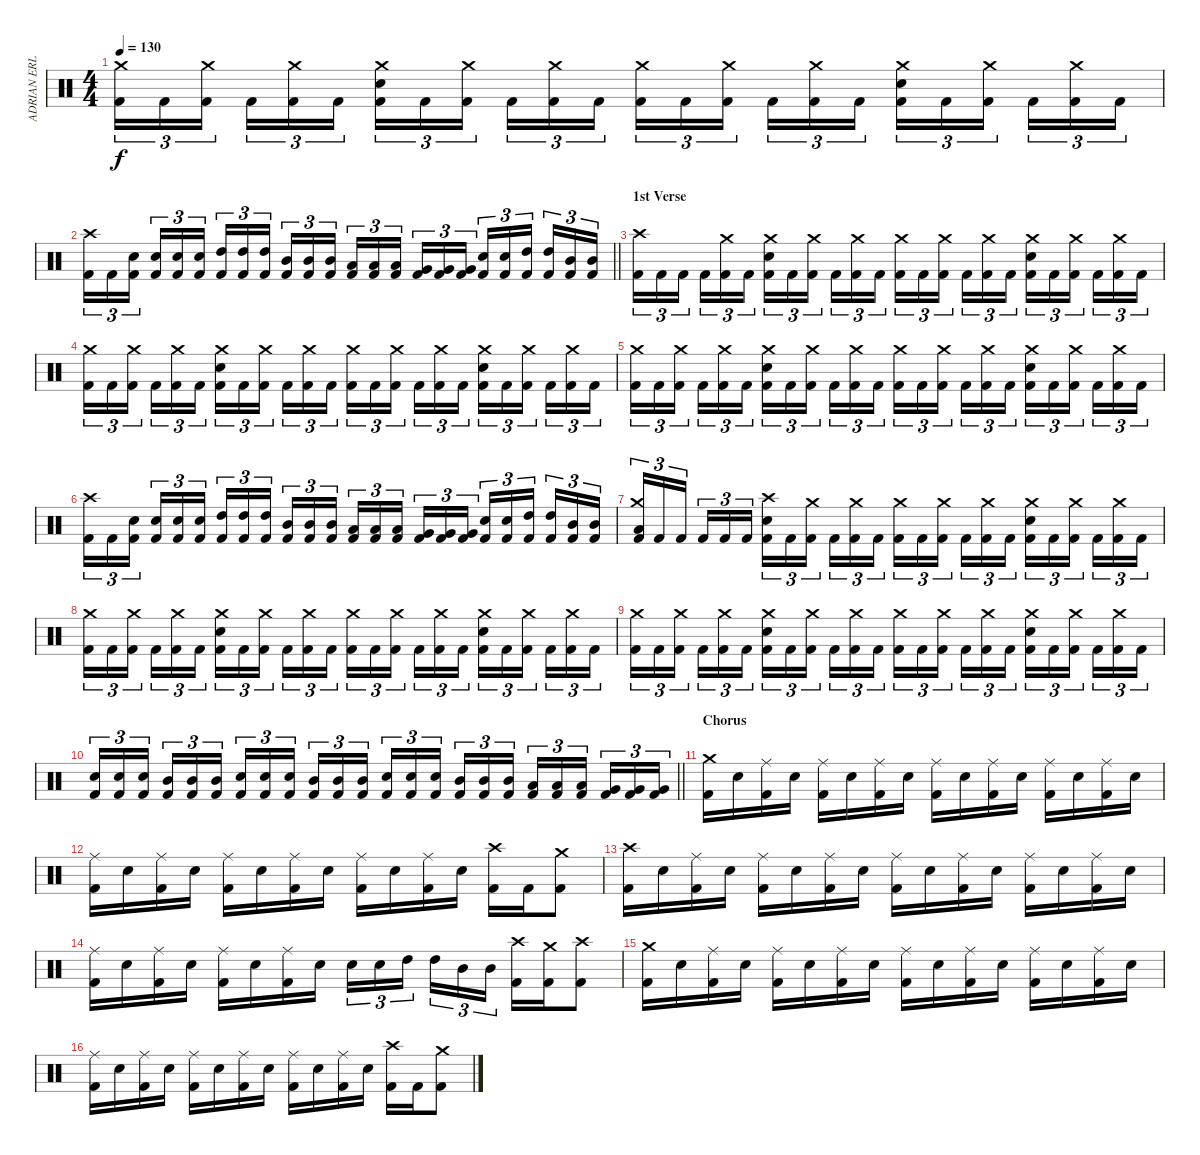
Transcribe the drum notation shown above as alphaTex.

\track ("ADRIAN ERLANDSSON" "ADRIAN ERL") {instrument percussion}
\staff {score}
\articulation defaults
\ts (4 4)
\tempo 130
\clef neutral
\ks c
("Kick (hit) 2" "Crash medium (hit)").16{tu (3 2) dy f} "Kick (hit) 2".16{tu (3 2)} ("Kick (hit) 2" "Crash medium (hit)").16{tu (3 2) beam splitsecondary} "Kick (hit) 2".16{tu (3 2)} ("Kick (hit) 2" "Crash medium (hit)").16{tu (3 2)} "Kick (hit) 2".16{tu (3 2)} ("Kick (hit) 2" "Electric Snare (hit)" "Crash medium (hit)").16{tu (3 2)} "Kick (hit) 2".16{tu (3 2)} ("Kick (hit) 2" "Crash medium (hit)").16{tu (3 2) beam splitsecondary} "Kick (hit) 2".16{tu (3 2)} ("Kick (hit) 2" "Crash medium (hit)").16{tu (3 2)} "Kick (hit) 2".16{tu (3 2)} ("Kick (hit) 2" "Crash medium (hit)").16{tu (3 2)} "Kick (hit) 2".16{tu (3 2)} ("Kick (hit) 2" "Crash medium (hit)").16{tu (3 2) beam splitsecondary} "Kick (hit) 2".16{tu (3 2)} ("Kick (hit) 2" "Crash medium (hit)").16{tu (3 2)} "Kick (hit) 2".16{tu (3 2)} ("Kick (hit) 2" "Electric Snare (hit)" "Crash medium (hit)").16{tu (3 2)} "Kick (hit) 2".16{tu (3 2)} ("Kick (hit) 2" "Crash medium (hit)").16{tu (3 2) beam splitsecondary} "Kick (hit) 2".16{tu (3 2)} ("Kick (hit) 2" "Crash medium (hit)").16{tu (3 2)} "Kick (hit) 2".16{tu (3 2)} |
\barLineRight lightlight
("Kick (hit) 2" "Crash high (hit)").16{tu (3 2)} "Kick (hit) 2".16{tu (3 2)} ("Kick (hit) 2" "Electric Snare (hit)").16{tu (3 2) beam splitsecondary} ("Kick (hit) 2" "Electric Snare (hit)").16{tu (3 2)} ("Kick (hit) 2" "Electric Snare (hit)").16{tu (3 2)} ("Kick (hit) 2" "Electric Snare (hit)").16{tu (3 2)} ("Kick (hit) 2" "High Tom (hit)").16{tu (3 2)} ("Kick (hit) 2" "High Tom (hit)").16{tu (3 2)} ("Kick (hit) 2" "High Tom (hit)").16{tu (3 2) beam splitsecondary} ("Kick (hit) 2" "Mid Tom (hit)").16{tu (3 2)} ("Kick (hit) 2" "Mid Tom (hit)").16{tu (3 2)} ("Kick (hit) 2" "Mid Tom (hit)").16{tu (3 2)} ("Kick (hit) 2" "Low Tom (hit)").16{tu (3 2)} ("Kick (hit) 2" "Low Tom (hit)").16{tu (3 2)} ("Kick (hit) 2" "Low Tom (hit)").16{tu (3 2) beam splitsecondary} ("Kick (hit) 2" "Very Low Tom (hit)").16{tu (3 2)} ("Kick (hit) 2" "Very Low Tom (hit)").16{tu (3 2)} ("Kick (hit) 2" "Very Low Tom (hit)").16{tu (3 2)} ("Kick (hit) 2" "Electric Snare (hit)").16{tu (3 2)} ("Kick (hit) 2" "Electric Snare (hit)").16{tu (3 2)} ("Kick (hit) 2" "High Tom (hit)").16{tu (3 2) beam splitsecondary} ("Kick (hit) 2" "High Tom (hit)").16{tu (3 2)} ("Kick (hit) 2" "Mid Tom (hit)").16{tu (3 2)} ("Kick (hit) 2" "Mid Tom (hit)").16{tu (3 2)} |
\section ("" "1st Verse")
("Kick (hit) 2" "Crash high (hit)").16{tu (3 2)} "Kick (hit) 2".16{tu (3 2)} "Kick (hit) 2".16{tu (3 2) beam splitsecondary} "Kick (hit) 2".16{tu (3 2)} ("Kick (hit) 2" "Crash medium (hit)").16{tu (3 2)} "Kick (hit) 2".16{tu (3 2)} ("Kick (hit) 2" "Electric Snare (hit)" "Crash medium (hit)").16{tu (3 2)} "Kick (hit) 2".16{tu (3 2)} ("Kick (hit) 2" "Crash medium (hit)").16{tu (3 2) beam splitsecondary} "Kick (hit) 2".16{tu (3 2)} ("Kick (hit) 2" "Crash medium (hit)").16{tu (3 2)} "Kick (hit) 2".16{tu (3 2)} ("Kick (hit) 2" "Crash medium (hit)").16{tu (3 2)} "Kick (hit) 2".16{tu (3 2)} ("Kick (hit) 2" "Crash medium (hit)").16{tu (3 2) beam splitsecondary} "Kick (hit) 2".16{tu (3 2)} ("Kick (hit) 2" "Crash medium (hit)").16{tu (3 2)} "Kick (hit) 2".16{tu (3 2)} ("Kick (hit) 2" "Electric Snare (hit)" "Crash medium (hit)").16{tu (3 2)} "Kick (hit) 2".16{tu (3 2)} ("Kick (hit) 2" "Crash medium (hit)").16{tu (3 2) beam splitsecondary} "Kick (hit) 2".16{tu (3 2)} ("Kick (hit) 2" "Crash medium (hit)").16{tu (3 2)} "Kick (hit) 2".16{tu (3 2)} |
("Kick (hit) 2" "Crash medium (hit)").16{tu (3 2)} "Kick (hit) 2".16{tu (3 2)} ("Kick (hit) 2" "Crash medium (hit)").16{tu (3 2) beam splitsecondary} "Kick (hit) 2".16{tu (3 2)} ("Kick (hit) 2" "Crash medium (hit)").16{tu (3 2)} "Kick (hit) 2".16{tu (3 2)} ("Kick (hit) 2" "Electric Snare (hit)" "Crash medium (hit)").16{tu (3 2)} "Kick (hit) 2".16{tu (3 2)} ("Kick (hit) 2" "Crash medium (hit)").16{tu (3 2) beam splitsecondary} "Kick (hit) 2".16{tu (3 2)} ("Kick (hit) 2" "Crash medium (hit)").16{tu (3 2)} "Kick (hit) 2".16{tu (3 2)} ("Kick (hit) 2" "Crash medium (hit)").16{tu (3 2)} "Kick (hit) 2".16{tu (3 2)} ("Kick (hit) 2" "Crash medium (hit)").16{tu (3 2) beam splitsecondary} "Kick (hit) 2".16{tu (3 2)} ("Kick (hit) 2" "Crash medium (hit)").16{tu (3 2)} "Kick (hit) 2".16{tu (3 2)} ("Kick (hit) 2" "Electric Snare (hit)" "Crash medium (hit)").16{tu (3 2)} "Kick (hit) 2".16{tu (3 2)} ("Kick (hit) 2" "Crash medium (hit)").16{tu (3 2) beam splitsecondary} "Kick (hit) 2".16{tu (3 2)} ("Kick (hit) 2" "Crash medium (hit)").16{tu (3 2)} "Kick (hit) 2".16{tu (3 2)} |
("Kick (hit) 2" "Crash medium (hit)").16{tu (3 2)} "Kick (hit) 2".16{tu (3 2)} ("Kick (hit) 2" "Crash medium (hit)").16{tu (3 2) beam splitsecondary} "Kick (hit) 2".16{tu (3 2)} ("Kick (hit) 2" "Crash medium (hit)").16{tu (3 2)} "Kick (hit) 2".16{tu (3 2)} ("Kick (hit) 2" "Electric Snare (hit)" "Crash medium (hit)").16{tu (3 2)} "Kick (hit) 2".16{tu (3 2)} ("Kick (hit) 2" "Crash medium (hit)").16{tu (3 2) beam splitsecondary} "Kick (hit) 2".16{tu (3 2)} ("Kick (hit) 2" "Crash medium (hit)").16{tu (3 2)} "Kick (hit) 2".16{tu (3 2)} ("Kick (hit) 2" "Crash medium (hit)").16{tu (3 2)} "Kick (hit) 2".16{tu (3 2)} ("Kick (hit) 2" "Crash medium (hit)").16{tu (3 2) beam splitsecondary} "Kick (hit) 2".16{tu (3 2)} ("Kick (hit) 2" "Crash medium (hit)").16{tu (3 2)} "Kick (hit) 2".16{tu (3 2)} ("Kick (hit) 2" "Electric Snare (hit)" "Crash medium (hit)").16{tu (3 2)} "Kick (hit) 2".16{tu (3 2)} ("Kick (hit) 2" "Crash medium (hit)").16{tu (3 2) beam splitsecondary} "Kick (hit) 2".16{tu (3 2)} ("Kick (hit) 2" "Crash medium (hit)").16{tu (3 2)} "Kick (hit) 2".16{tu (3 2)} |
("Kick (hit) 2" "Crash high (hit)").16{tu (3 2)} "Kick (hit) 2".16{tu (3 2)} ("Kick (hit) 2" "Electric Snare (hit)").16{tu (3 2) beam splitsecondary} ("Kick (hit) 2" "Electric Snare (hit)").16{tu (3 2)} ("Kick (hit) 2" "Electric Snare (hit)").16{tu (3 2)} ("Kick (hit) 2" "Electric Snare (hit)").16{tu (3 2)} ("Kick (hit) 2" "High Tom (hit)").16{tu (3 2)} ("Kick (hit) 2" "High Tom (hit)").16{tu (3 2)} ("Kick (hit) 2" "High Tom (hit)").16{tu (3 2) beam splitsecondary} ("Kick (hit) 2" "Mid Tom (hit)").16{tu (3 2)} ("Kick (hit) 2" "Mid Tom (hit)").16{tu (3 2)} ("Kick (hit) 2" "Mid Tom (hit)").16{tu (3 2)} ("Kick (hit) 2" "Low Tom (hit)").16{tu (3 2)} ("Kick (hit) 2" "Low Tom (hit)").16{tu (3 2)} ("Kick (hit) 2" "Low Tom (hit)").16{tu (3 2) beam splitsecondary} ("Kick (hit) 2" "Very Low Tom (hit)").16{tu (3 2)} ("Kick (hit) 2" "Very Low Tom (hit)").16{tu (3 2)} ("Kick (hit) 2" "Very Low Tom (hit)").16{tu (3 2)} ("Kick (hit) 2" "Electric Snare (hit)").16{tu (3 2)} ("Kick (hit) 2" "Electric Snare (hit)").16{tu (3 2)} ("Kick (hit) 2" "High Tom (hit)").16{tu (3 2) beam splitsecondary} ("Kick (hit) 2" "High Tom (hit)").16{tu (3 2)} ("Kick (hit) 2" "Mid Tom (hit)").16{tu (3 2)} ("Kick (hit) 2" "Mid Tom (hit)").16{tu (3 2)} |
("Kick (hit) 2" "Low Tom (hit)" "Crash medium (hit)").16{tu (3 2)} "Kick (hit) 2".16{tu (3 2)} "Kick (hit) 2".16{tu (3 2) beam splitsecondary} "Kick (hit) 2".16{tu (3 2)} "Kick (hit) 2".16{tu (3 2)} "Kick (hit) 2".16{tu (3 2)} ("Kick (hit) 2" "Electric Snare (hit)" "Crash high (hit)").16{tu (3 2)} "Kick (hit) 2".16{tu (3 2)} ("Kick (hit) 2" "Crash medium (hit)").16{tu (3 2) beam splitsecondary} "Kick (hit) 2".16{tu (3 2)} ("Kick (hit) 2" "Crash medium (hit)").16{tu (3 2)} "Kick (hit) 2".16{tu (3 2)} ("Kick (hit) 2" "Crash medium (hit)").16{tu (3 2)} "Kick (hit) 2".16{tu (3 2)} ("Kick (hit) 2" "Crash medium (hit)").16{tu (3 2) beam splitsecondary} "Kick (hit) 2".16{tu (3 2)} ("Kick (hit) 2" "Crash medium (hit)").16{tu (3 2)} "Kick (hit) 2".16{tu (3 2)} ("Kick (hit) 2" "Electric Snare (hit)" "Crash medium (hit)").16{tu (3 2)} "Kick (hit) 2".16{tu (3 2)} ("Kick (hit) 2" "Crash medium (hit)").16{tu (3 2) beam splitsecondary} "Kick (hit) 2".16{tu (3 2)} ("Kick (hit) 2" "Crash medium (hit)").16{tu (3 2)} "Kick (hit) 2".16{tu (3 2)} |
("Kick (hit) 2" "Crash medium (hit)").16{tu (3 2)} "Kick (hit) 2".16{tu (3 2)} ("Kick (hit) 2" "Crash medium (hit)").16{tu (3 2) beam splitsecondary} "Kick (hit) 2".16{tu (3 2)} ("Kick (hit) 2" "Crash medium (hit)").16{tu (3 2)} "Kick (hit) 2".16{tu (3 2)} ("Kick (hit) 2" "Electric Snare (hit)" "Crash medium (hit)").16{tu (3 2)} "Kick (hit) 2".16{tu (3 2)} ("Kick (hit) 2" "Crash medium (hit)").16{tu (3 2) beam splitsecondary} "Kick (hit) 2".16{tu (3 2)} ("Kick (hit) 2" "Crash medium (hit)").16{tu (3 2)} "Kick (hit) 2".16{tu (3 2)} ("Kick (hit) 2" "Crash medium (hit)").16{tu (3 2)} "Kick (hit) 2".16{tu (3 2)} ("Kick (hit) 2" "Crash medium (hit)").16{tu (3 2) beam splitsecondary} "Kick (hit) 2".16{tu (3 2)} ("Kick (hit) 2" "Crash medium (hit)").16{tu (3 2)} "Kick (hit) 2".16{tu (3 2)} ("Kick (hit) 2" "Electric Snare (hit)" "Crash medium (hit)").16{tu (3 2)} "Kick (hit) 2".16{tu (3 2)} ("Kick (hit) 2" "Crash medium (hit)").16{tu (3 2) beam splitsecondary} "Kick (hit) 2".16{tu (3 2)} ("Kick (hit) 2" "Crash medium (hit)").16{tu (3 2)} "Kick (hit) 2".16{tu (3 2)} |
("Kick (hit) 2" "Crash medium (hit)").16{tu (3 2)} "Kick (hit) 2".16{tu (3 2)} ("Kick (hit) 2" "Crash medium (hit)").16{tu (3 2) beam splitsecondary} "Kick (hit) 2".16{tu (3 2)} ("Kick (hit) 2" "Crash medium (hit)").16{tu (3 2)} "Kick (hit) 2".16{tu (3 2)} ("Kick (hit) 2" "Electric Snare (hit)" "Crash medium (hit)").16{tu (3 2)} "Kick (hit) 2".16{tu (3 2)} ("Kick (hit) 2" "Crash medium (hit)").16{tu (3 2) beam splitsecondary} "Kick (hit) 2".16{tu (3 2)} ("Kick (hit) 2" "Crash medium (hit)").16{tu (3 2)} "Kick (hit) 2".16{tu (3 2)} ("Kick (hit) 2" "Crash medium (hit)").16{tu (3 2)} "Kick (hit) 2".16{tu (3 2)} ("Kick (hit) 2" "Crash medium (hit)").16{tu (3 2) beam splitsecondary} "Kick (hit) 2".16{tu (3 2)} ("Kick (hit) 2" "Crash medium (hit)").16{tu (3 2)} "Kick (hit) 2".16{tu (3 2)} ("Kick (hit) 2" "Electric Snare (hit)" "Crash medium (hit)").16{tu (3 2)} "Kick (hit) 2".16{tu (3 2)} ("Kick (hit) 2" "Crash medium (hit)").16{tu (3 2) beam splitsecondary} "Kick (hit) 2".16{tu (3 2)} ("Kick (hit) 2" "Crash medium (hit)").16{tu (3 2)} "Kick (hit) 2".16{tu (3 2)} |
\barLineRight lightlight
("Kick (hit) 2" "Electric Snare (hit)").16{tu (3 2)} ("Kick (hit) 2" "Electric Snare (hit)").16{tu (3 2)} ("Kick (hit) 2" "Electric Snare (hit)").16{tu (3 2) beam splitsecondary} ("Kick (hit) 2" "Mid Tom (hit)").16{tu (3 2)} ("Kick (hit) 2" "Mid Tom (hit)").16{tu (3 2)} ("Kick (hit) 2" "Mid Tom (hit)").16{tu (3 2)} ("Kick (hit) 2" "Electric Snare (hit)").16{tu (3 2)} ("Kick (hit) 2" "Electric Snare (hit)").16{tu (3 2)} ("Kick (hit) 2" "Electric Snare (hit)").16{tu (3 2) beam splitsecondary} ("Kick (hit) 2" "Mid Tom (hit)").16{tu (3 2)} ("Kick (hit) 2" "Mid Tom (hit)").16{tu (3 2)} ("Kick (hit) 2" "Mid Tom (hit)").16{tu (3 2)} ("Kick (hit) 2" "Electric Snare (hit)").16{tu (3 2)} ("Kick (hit) 2" "Electric Snare (hit)").16{tu (3 2)} ("Kick (hit) 2" "Electric Snare (hit)").16{tu (3 2) beam splitsecondary} ("Kick (hit) 2" "Mid Tom (hit)").16{tu (3 2)} ("Kick (hit) 2" "Mid Tom (hit)").16{tu (3 2)} ("Kick (hit) 2" "Mid Tom (hit)").16{tu (3 2)} ("Kick (hit) 2" "Low Tom (hit)").16{tu (3 2)} ("Kick (hit) 2" "Low Tom (hit)").16{tu (3 2)} ("Kick (hit) 2" "Low Tom (hit)").16{tu (3 2) beam splitsecondary} ("Kick (hit) 2" "Very Low Tom (hit)").16{tu (3 2)} ("Kick (hit) 2" "Very Low Tom (hit)").16{tu (3 2)} ("Kick (hit) 2" "Very Low Tom (hit)").16{tu (3 2)} |
\section ("" "Chorus")
("Kick (hit) 2" "Crash medium (hit)").16 "Electric Snare (hit)".16 ("Kick (hit) 2" "Ride (middle)").16 "Electric Snare (hit)".16 ("Kick (hit) 2" "Ride (middle)").16 "Electric Snare (hit)".16 ("Kick (hit) 2" "Ride (middle)").16 "Electric Snare (hit)".16 ("Kick (hit) 2" "Ride (middle)").16 "Electric Snare (hit)".16 ("Kick (hit) 2" "Ride (middle)").16 "Electric Snare (hit)".16 ("Kick (hit) 2" "Ride (middle)").16 "Electric Snare (hit)".16 ("Kick (hit) 2" "Ride (middle)").16 "Electric Snare (hit)".16 |
("Kick (hit) 2" "Ride (middle)").16 "Electric Snare (hit)".16 ("Kick (hit) 2" "Ride (middle)").16 "Electric Snare (hit)".16 ("Kick (hit) 2" "Ride (middle)").16 "Electric Snare (hit)".16 ("Kick (hit) 2" "Ride (middle)").16 "Electric Snare (hit)".16 ("Kick (hit) 2" "Ride (middle)").16 "Electric Snare (hit)".16 ("Kick (hit) 2" "Ride (middle)").16 "Electric Snare (hit)".16 ("Kick (hit) 2" "Crash high (hit)").16 "Kick (hit) 2".16 ("Kick (hit) 2" "Crash medium (hit)").8 |
("Kick (hit) 2" "Crash high (hit)").16 "Electric Snare (hit)".16 ("Kick (hit) 2" "Ride (middle)").16 "Electric Snare (hit)".16 ("Kick (hit) 2" "Ride (middle)").16 "Electric Snare (hit)".16 ("Kick (hit) 2" "Ride (middle)").16 "Electric Snare (hit)".16 ("Kick (hit) 2" "Ride (middle)").16 "Electric Snare (hit)".16 ("Kick (hit) 2" "Ride (middle)").16 "Electric Snare (hit)".16 ("Kick (hit) 2" "Ride (middle)").16 "Electric Snare (hit)".16 ("Kick (hit) 2" "Ride (middle)").16 "Electric Snare (hit)".16 |
("Kick (hit) 2" "Ride (middle)").16 "Electric Snare (hit)".16 ("Kick (hit) 2" "Ride (middle)").16 "Electric Snare (hit)".16 ("Kick (hit) 2" "Ride (middle)").16 "Electric Snare (hit)".16 ("Kick (hit) 2" "Ride (middle)").16 "Electric Snare (hit)".16 "Electric Snare (hit)".16{tu (3 2)} "Electric Snare (hit)".16{tu (3 2)} "High Tom (hit)".16{tu (3 2) beam splitsecondary} "High Tom (hit)".16{tu (3 2)} "Mid Tom (hit)".16{tu (3 2)} "Mid Tom (hit)".16{tu (3 2)} ("Kick (hit) 2" "Crash high (hit)").16 ("Kick (hit) 2" "Crash medium (hit)").16 ("Kick (hit) 2" "Crash high (hit)").8 |
("Kick (hit) 2" "Crash medium (hit)").16 "Electric Snare (hit)".16 ("Kick (hit) 2" "Ride (middle)").16 "Electric Snare (hit)".16 ("Kick (hit) 2" "Ride (middle)").16 "Electric Snare (hit)".16 ("Kick (hit) 2" "Ride (middle)").16 "Electric Snare (hit)".16 ("Kick (hit) 2" "Ride (middle)").16 "Electric Snare (hit)".16 ("Kick (hit) 2" "Ride (middle)").16 "Electric Snare (hit)".16 ("Kick (hit) 2" "Ride (middle)").16 "Electric Snare (hit)".16 ("Kick (hit) 2" "Ride (middle)").16 "Electric Snare (hit)".16 |
("Kick (hit) 2" "Ride (middle)").16 "Electric Snare (hit)".16 ("Kick (hit) 2" "Ride (middle)").16 "Electric Snare (hit)".16 ("Kick (hit) 2" "Ride (middle)").16 "Electric Snare (hit)".16 ("Kick (hit) 2" "Ride (middle)").16 "Electric Snare (hit)".16 ("Kick (hit) 2" "Ride (middle)").16 "Electric Snare (hit)".16 ("Kick (hit) 2" "Ride (middle)").16 "Electric Snare (hit)".16 ("Kick (hit) 2" "Crash high (hit)").16 "Kick (hit) 2".16 ("Kick (hit) 2" "Crash medium (hit)").8
